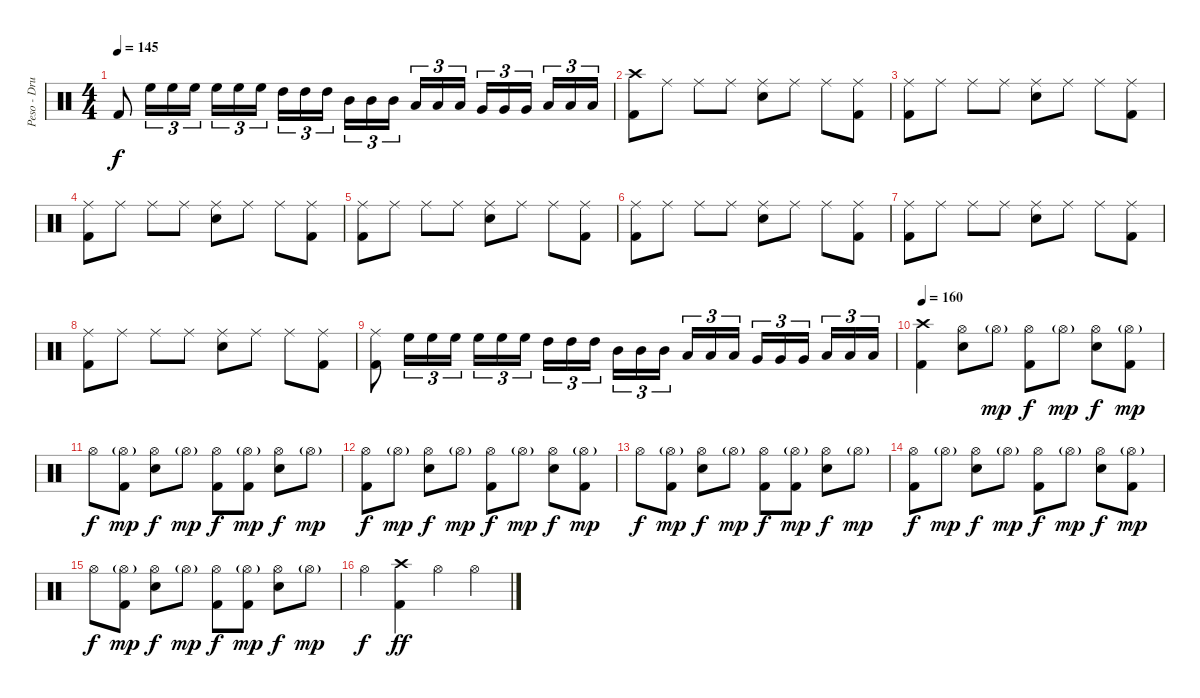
\track ("Peso - Drums" "Peso - Dru") {instrument percussion}
\staff {score}
\articulation defaults
\ts (4 4)
\tempo 145
\clef neutral
\ks c "Kick (hit) 2".8{dy f} "High Floor Tom (hit)".16{tu (3 2)} "High Floor Tom (hit)".16{tu (3 2)} "High Floor Tom (hit)".16{tu (3 2)} "High Floor Tom (hit)".16{tu (3 2)} "High Floor Tom (hit)".16{tu (3 2)} "High Floor Tom (hit)".16{tu (3 2) beam splitsecondary} "High Tom (hit)".16{tu (3 2)} "High Tom (hit)".16{tu (3 2)} "High Tom (hit)".16{tu (3 2)} "Mid Tom (hit)".16{tu (3 2)} "Mid Tom (hit)".16{tu (3 2)} "Mid Tom (hit)".16{tu (3 2) beam splitsecondary} "Low Tom (hit)".16{tu (3 2)} "Low Tom (hit)".16{tu (3 2)} "Low Tom (hit)".16{tu (3 2)} "Very Low Tom (hit)".16{tu (3 2)} "Very Low Tom (hit)".16{tu (3 2)} "Very Low Tom (hit)".16{tu (3 2) beam splitsecondary} "Low Floor Tom (hit)".16{tu (3 2)} "Low Floor Tom (hit)".16{tu (3 2)} "Low Floor Tom (hit)".16{tu (3 2)}
|
("Crash high (hit)" "Kick (hit) 2").8 "Ride (middle)".8 "Ride (middle)".8 "Ride (middle)".8 ("Ride (middle)" "Electric Snare (hit)").8 "Ride (middle)".8 "Ride (middle)".8 ("Ride (middle)" "Kick (hit) 2").8 |
("Ride (middle)" "Kick (hit) 2").8 "Ride (middle)".8 "Ride (middle)".8 "Ride (middle)".8 ("Ride (middle)" "Electric Snare (hit)").8 "Ride (middle)".8 "Ride (middle)".8 ("Ride (middle)" "Kick (hit) 2").8 |
("Ride (middle)" "Kick (hit) 2").8 "Ride (middle)".8 "Ride (middle)".8 "Ride (middle)".8 ("Ride (middle)" "Electric Snare (hit)").8 "Ride (middle)".8 "Ride (middle)".8 ("Ride (middle)" "Kick (hit) 2").8 |
("Ride (middle)" "Kick (hit) 2").8 "Ride (middle)".8 "Ride (middle)".8 "Ride (middle)".8 ("Ride (middle)" "Electric Snare (hit)").8 "Ride (middle)".8 "Ride (middle)".8 ("Ride (middle)" "Kick (hit) 2").8 |
("Ride (middle)" "Kick (hit) 2").8 "Ride (middle)".8 "Ride (middle)".8 "Ride (middle)".8 ("Ride (middle)" "Electric Snare (hit)").8 "Ride (middle)".8 "Ride (middle)".8 ("Ride (middle)" "Kick (hit) 2").8 |
("Ride (middle)" "Kick (hit) 2").8 "Ride (middle)".8 "Ride (middle)".8 "Ride (middle)".8 ("Ride (middle)" "Electric Snare (hit)").8 "Ride (middle)".8 "Ride (middle)".8 ("Ride (middle)" "Kick (hit) 2").8 |
("Ride (middle)" "Kick (hit) 2").8 "Ride (middle)".8 "Ride (middle)".8 "Ride (middle)".8 ("Ride (middle)" "Electric Snare (hit)").8 "Ride (middle)".8 "Ride (middle)".8 ("Ride (middle)" "Kick (hit) 2").8 |
("Ride (middle)" "Kick (hit) 2").8 "High Floor Tom (hit)".16{tu (3 2)} "High Floor Tom (hit)".16{tu (3 2)} "High Floor Tom (hit)".16{tu (3 2)} "High Floor Tom (hit)".16{tu (3 2)} "High Floor Tom (hit)".16{tu (3 2)} "High Floor Tom (hit)".16{tu (3 2) beam splitsecondary} "High Tom (hit)".16{tu (3 2)} "High Tom (hit)".16{tu (3 2)} "High Tom (hit)".16{tu (3 2)} "Mid Tom (hit)".16{tu (3 2)} "Mid Tom (hit)".16{tu (3 2)} "Mid Tom (hit)".16{tu (3 2) beam splitsecondary} "Low Tom (hit)".16{tu (3 2)} "Low Tom (hit)".16{tu (3 2)} "Low Tom (hit)".16{tu (3 2)} "Very Low Tom (hit)".16{tu (3 2)} "Very Low Tom (hit)".16{tu (3 2)} "Very Low Tom (hit)".16{tu (3 2) beam splitsecondary} "Low Floor Tom (hit)".16{tu (3 2)} "Low Floor Tom (hit)".16{tu (3 2)} "Low Floor Tom (hit)".16{tu (3 2)} |
\tempo 160
("Crash high (hit)" "Kick (hit) 2").4 ("Hi-Hat (open)" "Electric Snare (hit)").8 "Hi-Hat (open)"{g}.8{dy mp} ("Hi-Hat (open)" "Kick (hit) 2").8{dy f} "Hi-Hat (open)"{g}.8{dy mp} ("Hi-Hat (open)" "Electric Snare (hit)").8{dy f} ("Hi-Hat (open)"{g} "Kick (hit) 2").8{dy mp} |
"Hi-Hat (open)".8{dy f} ("Hi-Hat (open)"{g} "Kick (hit) 2").8{dy mp} ("Hi-Hat (open)" "Electric Snare (hit)").8{dy f} "Hi-Hat (open)"{g}.8{dy mp} ("Hi-Hat (open)" "Kick (hit) 2").8{dy f} ("Hi-Hat (open)"{g} "Kick (hit) 2").8{dy mp} ("Hi-Hat (open)" "Electric Snare (hit)").8{dy f} "Hi-Hat (open)"{g}.8{dy mp} |
("Hi-Hat (open)" "Kick (hit) 2").8{dy f} "Hi-Hat (open)"{g}.8{dy mp} ("Hi-Hat (open)" "Electric Snare (hit)").8{dy f} "Hi-Hat (open)"{g}.8{dy mp} ("Hi-Hat (open)" "Kick (hit) 2").8{dy f} "Hi-Hat (open)"{g}.8{dy mp} ("Hi-Hat (open)" "Electric Snare (hit)").8{dy f} ("Hi-Hat (open)"{g} "Kick (hit) 2").8{dy mp} |
"Hi-Hat (open)".8{dy f} ("Hi-Hat (open)"{g} "Kick (hit) 2").8{dy mp} ("Hi-Hat (open)" "Electric Snare (hit)").8{dy f} "Hi-Hat (open)"{g}.8{dy mp} ("Hi-Hat (open)" "Kick (hit) 2").8{dy f} ("Hi-Hat (open)"{g} "Kick (hit) 2").8{dy mp} ("Hi-Hat (open)" "Electric Snare (hit)").8{dy f} "Hi-Hat (open)"{g}.8{dy mp} |
("Hi-Hat (open)" "Kick (hit) 2").8{dy f} "Hi-Hat (open)"{g}.8{dy mp} ("Hi-Hat (open)" "Electric Snare (hit)").8{dy f} "Hi-Hat (open)"{g}.8{dy mp} ("Hi-Hat (open)" "Kick (hit) 2").8{dy f} "Hi-Hat (open)"{g}.8{dy mp} ("Hi-Hat (open)" "Electric Snare (hit)").8{dy f} ("Hi-Hat (open)"{g} "Kick (hit) 2").8{dy mp} |
"Hi-Hat (open)".8{dy f} ("Hi-Hat (open)"{g} "Kick (hit) 2").8{dy mp} ("Hi-Hat (open)" "Electric Snare (hit)").8{dy f} "Hi-Hat (open)"{g}.8{dy mp} ("Hi-Hat (open)" "Kick (hit) 2").8{dy f} ("Hi-Hat (open)"{g} "Kick (hit) 2").8{dy mp} ("Hi-Hat (open)" "Electric Snare (hit)").8{dy f} "Hi-Hat (open)"{g}.8{dy mp} |
"Hi-Hat (open)".4{dy f} ("Crash high (hit)" "Kick (hit) 2").4{dy ff} "Hi-Hat (open)".4 "Hi-Hat (open)".4
